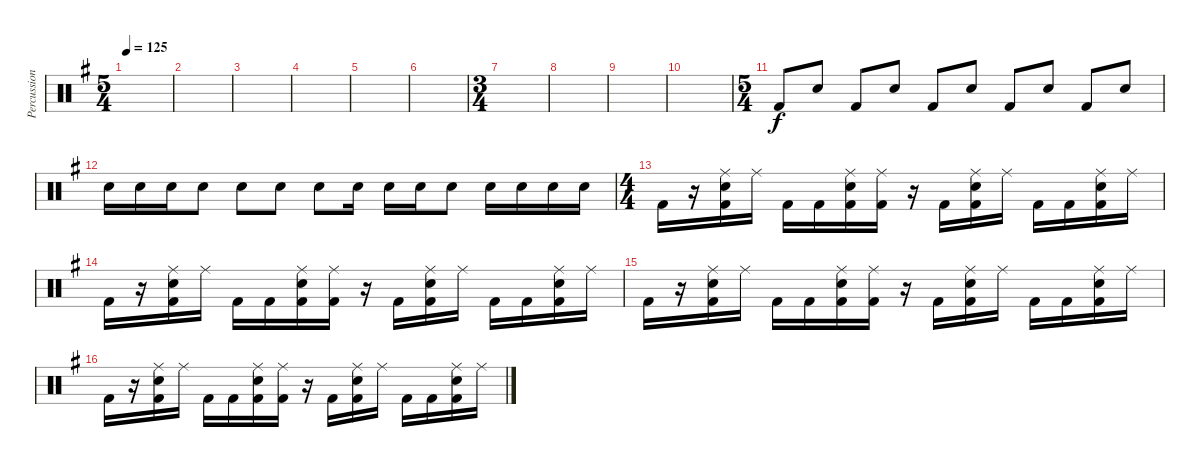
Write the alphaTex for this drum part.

\track ("Percussion" "Percussion") {instrument percussion}
\staff {score}
\articulation defaults
\ts (5 4)
\tempo 125
\clef neutral
\ks eminor
|
|
|
|
|
|
\ts (3 4)
|
|
|
|
\ts (5 4)
"Kick (hit) 2".8{dy f} "Snare (hit) 2".8 "Kick (hit) 2".8 "Snare (hit) 2".8 "Kick (hit) 2".8 "Snare (hit) 2".8 "Kick (hit) 2".8 "Snare (hit) 2".8 "Kick (hit) 2".8 "Snare (hit) 2".8 |
"Snare (hit) 2".16 "Snare (hit) 2".16 "Snare (hit) 2".16 "Snare (hit) 2".8 "Snare (hit) 2".8 "Snare (hit) 2".8 "Snare (hit) 2".8 "Snare (hit) 2".16 "Snare (hit) 2".16 "Snare (hit) 2".16 "Snare (hit) 2".8 "Snare (hit) 2".16 "Snare (hit) 2".16 "Snare (hit) 2".16 "Snare (hit) 2".16 |
\ts (4 4)
"Kick (hit) 2".16 r.16 ("Ride (middle)" "Snare (hit) 2" "Kick (hit) 2").16 "Ride (middle)".16 "Kick (hit) 2".16 "Kick (hit) 2".16 ("Ride (middle)" "Snare (hit) 2" "Kick (hit) 2").16 ("Ride (middle)" "Kick (hit) 2").16 r.16 "Kick (hit) 2".16 ("Ride (middle)" "Snare (hit) 2" "Kick (hit) 2").16 "Ride (middle)".16 "Kick (hit) 2".16 "Kick (hit) 2".16 ("Ride (middle)" "Snare (hit) 2" "Kick (hit) 2").16 "Ride (middle)".16 |
"Kick (hit) 2".16 r.16 ("Ride (middle)" "Snare (hit) 2" "Kick (hit) 2").16 "Ride (middle)".16 "Kick (hit) 2".16 "Kick (hit) 2".16 ("Ride (middle)" "Snare (hit) 2" "Kick (hit) 2").16 ("Ride (middle)" "Kick (hit) 2").16 r.16 "Kick (hit) 2".16 ("Ride (middle)" "Snare (hit) 2" "Kick (hit) 2").16 "Ride (middle)".16 "Kick (hit) 2".16 "Kick (hit) 2".16 ("Ride (middle)" "Snare (hit) 2" "Kick (hit) 2").16 "Ride (middle)".16 |
"Kick (hit) 2".16 r.16 ("Ride (middle)" "Snare (hit) 2" "Kick (hit) 2").16 "Ride (middle)".16 "Kick (hit) 2".16 "Kick (hit) 2".16 ("Ride (middle)" "Snare (hit) 2" "Kick (hit) 2").16 ("Ride (middle)" "Kick (hit) 2").16 r.16 "Kick (hit) 2".16 ("Ride (middle)" "Snare (hit) 2" "Kick (hit) 2").16 "Ride (middle)".16 "Kick (hit) 2".16 "Kick (hit) 2".16 ("Ride (middle)" "Snare (hit) 2" "Kick (hit) 2").16 "Ride (middle)".16 |
"Kick (hit) 2".16 r.16 ("Ride (middle)" "Snare (hit) 2" "Kick (hit) 2").16 "Ride (middle)".16 "Kick (hit) 2".16 "Kick (hit) 2".16 ("Ride (middle)" "Snare (hit) 2" "Kick (hit) 2").16 ("Ride (middle)" "Kick (hit) 2").16 r.16 "Kick (hit) 2".16 ("Ride (middle)" "Snare (hit) 2" "Kick (hit) 2").16 "Ride (middle)".16 "Kick (hit) 2".16 "Kick (hit) 2".16 ("Ride (middle)" "Snare (hit) 2" "Kick (hit) 2").16 "Ride (middle)".16
